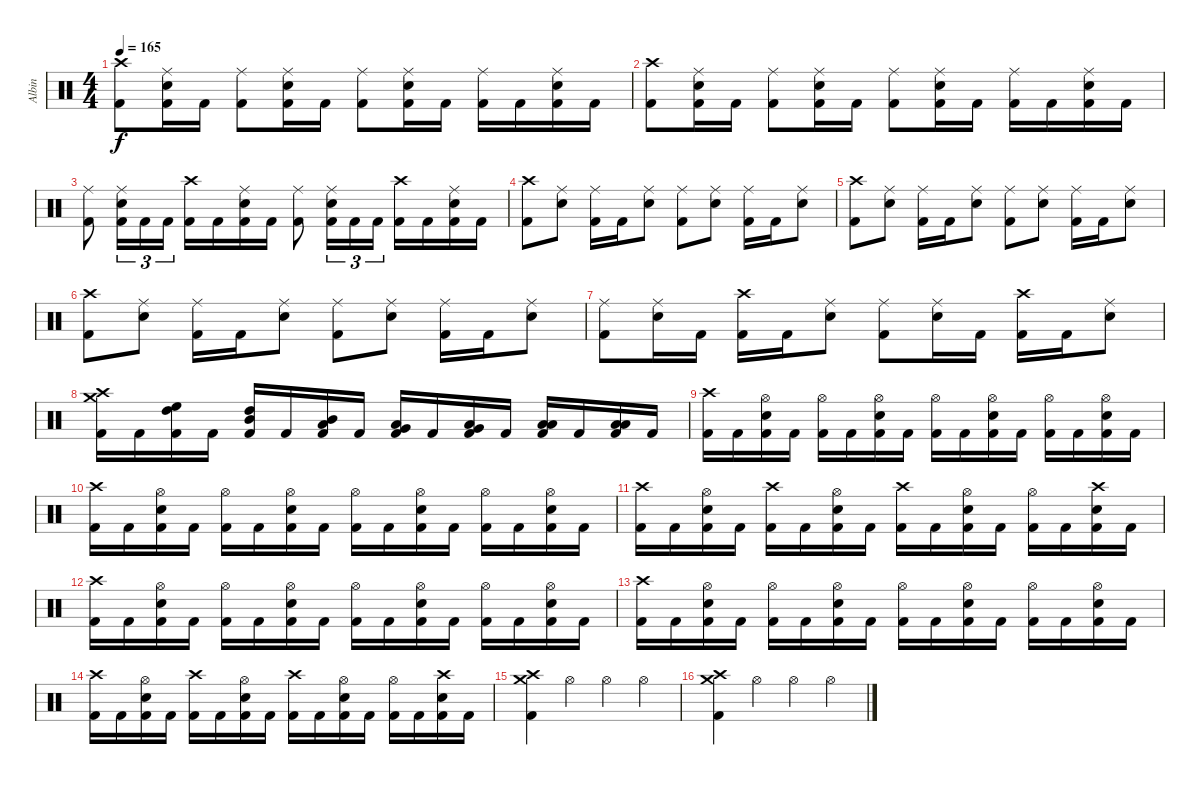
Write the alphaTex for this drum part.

\track ("Albin" "Albin") {instrument percussion}
\staff {score}
\articulation defaults
\ts (4 4)
\tempo 165
\clef neutral
\ks c
("Kick (hit) 2" "Crash high (hit)").8{dy f} ("Kick (hit) 2" "Electric Snare (hit)" "Ride (middle)").16 "Kick (hit) 2".16 ("Kick (hit) 2" "Ride (middle)").8 ("Kick (hit) 2" "Electric Snare (hit)" "Ride (middle)").16 "Kick (hit) 2".16 ("Kick (hit) 2" "Ride (middle)").8 ("Kick (hit) 2" "Electric Snare (hit)" "Ride (middle)").16 "Kick (hit) 2".16 ("Kick (hit) 2" "Ride (middle)").16 "Kick (hit) 2".16 ("Kick (hit) 2" "Electric Snare (hit)" "Ride (middle)").16 "Kick (hit) 2".16 |
("Kick (hit) 2" "Crash high (hit)").8 ("Kick (hit) 2" "Electric Snare (hit)" "Ride (middle)").16 "Kick (hit) 2".16 ("Kick (hit) 2" "Ride (middle)").8 ("Kick (hit) 2" "Electric Snare (hit)" "Ride (middle)").16 "Kick (hit) 2".16 ("Kick (hit) 2" "Ride (middle)").8 ("Kick (hit) 2" "Electric Snare (hit)" "Ride (middle)").16 "Kick (hit) 2".16 ("Kick (hit) 2" "Ride (middle)").16 "Kick (hit) 2".16 ("Kick (hit) 2" "Electric Snare (hit)" "Ride (middle)").16 "Kick (hit) 2".16 |
("Kick (hit) 2" "Ride (middle)").8 ("Kick (hit) 2" "Electric Snare (hit)" "Ride (middle)").16{tu (3 2)} "Kick (hit) 2".16{tu (3 2)} "Kick (hit) 2".16{tu (3 2)} ("Kick (hit) 2" "Crash high (hit)").16 "Kick (hit) 2".16 ("Kick (hit) 2" "Electric Snare (hit)" "Ride (middle)").16 "Kick (hit) 2".16 ("Kick (hit) 2" "Ride (middle)").8 ("Kick (hit) 2" "Electric Snare (hit)" "Ride (middle)").16{tu (3 2)} "Kick (hit) 2".16{tu (3 2)} "Kick (hit) 2".16{tu (3 2)} ("Kick (hit) 2" "Crash high (hit)").16 "Kick (hit) 2".16 ("Kick (hit) 2" "Electric Snare (hit)" "Ride (middle)").16 "Kick (hit) 2".16 |
("Kick (hit) 2" "Crash high (hit)").8 ("Electric Snare (hit)" "Ride (middle)").8 ("Kick (hit) 2" "Ride (middle)").16 "Kick (hit) 2".16 ("Electric Snare (hit)" "Ride (middle)").8 ("Kick (hit) 2" "Ride (middle)").8 ("Electric Snare (hit)" "Ride (middle)").8 ("Kick (hit) 2" "Ride (middle)").16 "Kick (hit) 2".16 ("Electric Snare (hit)" "Ride (middle)").8 |
("Kick (hit) 2" "Crash high (hit)").8 ("Electric Snare (hit)" "Ride (middle)").8 ("Kick (hit) 2" "Ride (middle)").16 "Kick (hit) 2".16 ("Electric Snare (hit)" "Ride (middle)").8 ("Kick (hit) 2" "Ride (middle)").8 ("Electric Snare (hit)" "Ride (middle)").8 ("Kick (hit) 2" "Ride (middle)").16 "Kick (hit) 2".16 ("Electric Snare (hit)" "Ride (middle)").8 |
("Kick (hit) 2" "Crash high (hit)").8 ("Electric Snare (hit)" "Ride (middle)").8 ("Kick (hit) 2" "Ride (middle)").16 "Kick (hit) 2".16 ("Electric Snare (hit)" "Ride (middle)").8 ("Kick (hit) 2" "Ride (middle)").8 ("Electric Snare (hit)" "Ride (middle)").8 ("Kick (hit) 2" "Ride (middle)").16 "Kick (hit) 2".16 ("Electric Snare (hit)" "Ride (middle)").8 |
("Kick (hit) 2" "Ride (middle)").8 ("Electric Snare (hit)" "Ride (middle)").16 "Kick (hit) 2".16 ("Kick (hit) 2" "Crash high (hit)").16 "Kick (hit) 2".16 ("Electric Snare (hit)" "Ride (middle)").8 ("Kick (hit) 2" "Ride (middle)").8 ("Electric Snare (hit)" "Ride (middle)").16 "Kick (hit) 2".16 ("Kick (hit) 2" "Crash high (hit)").16 "Kick (hit) 2".16 ("Electric Snare (hit)" "Ride (middle)").8 |
("Kick (hit) 2" "Crash high (hit)" "Crash medium (hit)").16 "Kick (hit) 2".16 ("Kick (hit) 2" "High Floor Tom (hit)" "High Tom (hit)").16 "Kick (hit) 2".16 ("Kick (hit) 2" "High Tom (hit)" "Mid Tom (hit)").16 "Kick (hit) 2".16 ("Kick (hit) 2" "Mid Tom (hit)" "Low Tom (hit)").16 "Kick (hit) 2".16 ("Kick (hit) 2" "Low Tom (hit)" "Very Low Tom (hit)").16 "Kick (hit) 2".16 ("Kick (hit) 2" "Very Low Tom (hit)" "Low Floor Tom (hit)").16 "Kick (hit) 2".16 ("Kick (hit) 2" "Low Floor Tom (hit)" "Low Floor Tom (hit)").16 "Kick (hit) 2".16 ("Kick (hit) 2" "Low Floor Tom (hit)" "Low Floor Tom (hit)").16 "Kick (hit) 2".16 |
("Kick (hit) 2" "Crash high (hit)").16 "Kick (hit) 2".16 ("Kick (hit) 2" "Electric Snare (hit)" "Hi-Hat (open)").16 "Kick (hit) 2".16 ("Kick (hit) 2" "Hi-Hat (open)").16 "Kick (hit) 2".16 ("Kick (hit) 2" "Electric Snare (hit)" "Hi-Hat (open)").16 "Kick (hit) 2".16 ("Kick (hit) 2" "Hi-Hat (open)").16 "Kick (hit) 2".16 ("Kick (hit) 2" "Electric Snare (hit)" "Hi-Hat (open)").16 "Kick (hit) 2".16 ("Kick (hit) 2" "Hi-Hat (open)").16 "Kick (hit) 2".16 ("Kick (hit) 2" "Electric Snare (hit)" "Hi-Hat (open)").16 "Kick (hit) 2".16 |
("Kick (hit) 2" "Crash high (hit)").16 "Kick (hit) 2".16 ("Kick (hit) 2" "Electric Snare (hit)" "Hi-Hat (open)").16 "Kick (hit) 2".16 ("Kick (hit) 2" "Hi-Hat (open)").16 "Kick (hit) 2".16 ("Kick (hit) 2" "Electric Snare (hit)" "Hi-Hat (open)").16 "Kick (hit) 2".16 ("Kick (hit) 2" "Hi-Hat (open)").16 "Kick (hit) 2".16 ("Kick (hit) 2" "Electric Snare (hit)" "Hi-Hat (open)").16 "Kick (hit) 2".16 ("Kick (hit) 2" "Hi-Hat (open)").16 "Kick (hit) 2".16 ("Kick (hit) 2" "Electric Snare (hit)" "Hi-Hat (open)").16 "Kick (hit) 2".16 |
("Kick (hit) 2" "Crash high (hit)").16 "Kick (hit) 2".16 ("Kick (hit) 2" "Electric Snare (hit)" "Hi-Hat (open)").16 "Kick (hit) 2".16 ("Kick (hit) 2" "Crash high (hit)").16 "Kick (hit) 2".16 ("Kick (hit) 2" "Electric Snare (hit)" "Hi-Hat (open)").16 "Kick (hit) 2".16 ("Kick (hit) 2" "Crash high (hit)").16 "Kick (hit) 2".16 ("Kick (hit) 2" "Electric Snare (hit)" "Hi-Hat (open)").16 "Kick (hit) 2".16 ("Kick (hit) 2" "Hi-Hat (open)").16 "Kick (hit) 2".16 ("Kick (hit) 2" "Electric Snare (hit)" "Crash high (hit)").16 "Kick (hit) 2".16 |
("Kick (hit) 2" "Crash high (hit)").16 "Kick (hit) 2".16 ("Kick (hit) 2" "Electric Snare (hit)" "Hi-Hat (open)").16 "Kick (hit) 2".16 ("Kick (hit) 2" "Hi-Hat (open)").16 "Kick (hit) 2".16 ("Kick (hit) 2" "Electric Snare (hit)" "Hi-Hat (open)").16 "Kick (hit) 2".16 ("Kick (hit) 2" "Hi-Hat (open)").16 "Kick (hit) 2".16 ("Kick (hit) 2" "Electric Snare (hit)" "Hi-Hat (open)").16 "Kick (hit) 2".16 ("Kick (hit) 2" "Hi-Hat (open)").16 "Kick (hit) 2".16 ("Kick (hit) 2" "Electric Snare (hit)" "Hi-Hat (open)").16 "Kick (hit) 2".16 |
("Kick (hit) 2" "Crash high (hit)").16 "Kick (hit) 2".16 ("Kick (hit) 2" "Electric Snare (hit)" "Hi-Hat (open)").16 "Kick (hit) 2".16 ("Kick (hit) 2" "Hi-Hat (open)").16 "Kick (hit) 2".16 ("Kick (hit) 2" "Electric Snare (hit)" "Hi-Hat (open)").16 "Kick (hit) 2".16 ("Kick (hit) 2" "Hi-Hat (open)").16 "Kick (hit) 2".16 ("Kick (hit) 2" "Electric Snare (hit)" "Hi-Hat (open)").16 "Kick (hit) 2".16 ("Kick (hit) 2" "Hi-Hat (open)").16 "Kick (hit) 2".16 ("Kick (hit) 2" "Electric Snare (hit)" "Hi-Hat (open)").16 "Kick (hit) 2".16 |
("Kick (hit) 2" "Crash high (hit)").16 "Kick (hit) 2".16 ("Kick (hit) 2" "Electric Snare (hit)" "Hi-Hat (open)").16 "Kick (hit) 2".16 ("Kick (hit) 2" "Crash high (hit)").16 "Kick (hit) 2".16 ("Kick (hit) 2" "Electric Snare (hit)" "Hi-Hat (open)").16 "Kick (hit) 2".16 ("Kick (hit) 2" "Crash high (hit)").16 "Kick (hit) 2".16 ("Kick (hit) 2" "Electric Snare (hit)" "Hi-Hat (open)").16 "Kick (hit) 2".16 ("Kick (hit) 2" "Hi-Hat (open)").16 "Kick (hit) 2".16 ("Kick (hit) 2" "Electric Snare (hit)" "Crash high (hit)").16 "Kick (hit) 2".16 |
("Kick (hit) 2" "Crash high (hit)" "Crash medium (hit)").4 "Hi-Hat (open)".4 "Hi-Hat (open)".4 "Hi-Hat (open)".4 |
("Kick (hit) 2" "Crash high (hit)" "Crash medium (hit)").4 "Hi-Hat (open)".4 "Hi-Hat (open)".4 "Hi-Hat (open)".4
